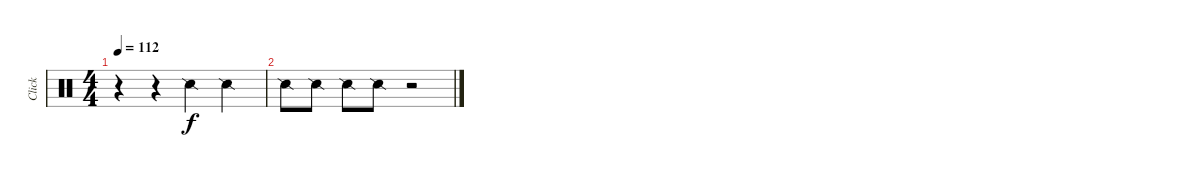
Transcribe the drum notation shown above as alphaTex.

\track ("Click" "Click") {instrument percussion}
\staff {score}
\articulation defaults
\ts (4 4)
\tempo 112
\clef neutral
\ks c
r.4{dy f} r.4 "Snare (side stick) 2".4 "Snare (side stick) 2".4 |
"Snare (side stick) 2".8 "Snare (side stick) 2".8 "Snare (side stick) 2".8 "Snare (side stick) 2".8 r.2
